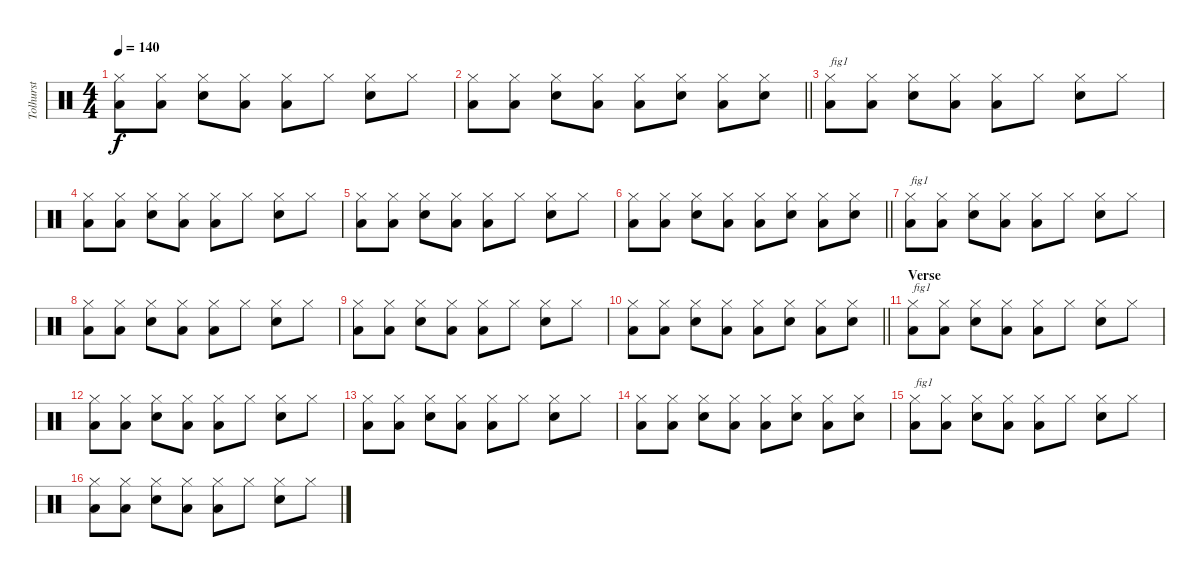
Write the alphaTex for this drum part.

\track ("Tolhurst" "Tolhurst") {instrument percussion}
\staff {score}
\articulation defaults
\ts (4 4)
\tempo 140
\clef neutral
\ks c
("Low Floor Tom (hit)" "Hi-Hat (closed)").8{dy f} ("Low Floor Tom (hit)" "Hi-Hat (closed)").8 ("Snare (hit) 2" "Hi-Hat (closed)").8 ("Low Floor Tom (hit)" "Hi-Hat (closed)").8 ("Low Floor Tom (hit)" "Hi-Hat (closed)").8 "Hi-Hat (closed)".8 ("Snare (hit) 2" "Hi-Hat (closed)").8 "Hi-Hat (closed)".8 |
\barLineRight lightlight
("Low Floor Tom (hit)" "Hi-Hat (closed)").8 ("Low Floor Tom (hit)" "Hi-Hat (closed)").8 ("Snare (hit) 2" "Hi-Hat (closed)").8 ("Low Floor Tom (hit)" "Hi-Hat (closed)").8 ("Low Floor Tom (hit)" "Hi-Hat (closed)").8 ("Snare (hit) 2" "Hi-Hat (closed)").8 ("Low Floor Tom (hit)" "Hi-Hat (closed)").8 ("Snare (hit) 2" "Hi-Hat (closed)").8 |
("Low Floor Tom (hit)" "Hi-Hat (closed)").8{txt "fig1"} ("Low Floor Tom (hit)" "Hi-Hat (closed)").8 ("Snare (hit) 2" "Hi-Hat (closed)").8 ("Low Floor Tom (hit)" "Hi-Hat (closed)").8 ("Low Floor Tom (hit)" "Hi-Hat (closed)").8 "Hi-Hat (closed)".8 ("Snare (hit) 2" "Hi-Hat (closed)").8 "Hi-Hat (closed)".8 |
("Low Floor Tom (hit)" "Hi-Hat (closed)").8 ("Low Floor Tom (hit)" "Hi-Hat (closed)").8 ("Snare (hit) 2" "Hi-Hat (closed)").8 ("Low Floor Tom (hit)" "Hi-Hat (closed)").8 ("Low Floor Tom (hit)" "Hi-Hat (closed)").8 "Hi-Hat (closed)".8 ("Snare (hit) 2" "Hi-Hat (closed)").8 "Hi-Hat (closed)".8 |
("Low Floor Tom (hit)" "Hi-Hat (closed)").8 ("Low Floor Tom (hit)" "Hi-Hat (closed)").8 ("Snare (hit) 2" "Hi-Hat (closed)").8 ("Low Floor Tom (hit)" "Hi-Hat (closed)").8 ("Low Floor Tom (hit)" "Hi-Hat (closed)").8 "Hi-Hat (closed)".8 ("Snare (hit) 2" "Hi-Hat (closed)").8 "Hi-Hat (closed)".8 |
\barLineRight lightlight
("Low Floor Tom (hit)" "Hi-Hat (closed)").8 ("Low Floor Tom (hit)" "Hi-Hat (closed)").8 ("Snare (hit) 2" "Hi-Hat (closed)").8 ("Low Floor Tom (hit)" "Hi-Hat (closed)").8 ("Low Floor Tom (hit)" "Hi-Hat (closed)").8 ("Snare (hit) 2" "Hi-Hat (closed)").8 ("Low Floor Tom (hit)" "Hi-Hat (closed)").8 ("Snare (hit) 2" "Hi-Hat (closed)").8 |
("Low Floor Tom (hit)" "Hi-Hat (closed)").8{txt "fig1"} ("Low Floor Tom (hit)" "Hi-Hat (closed)").8 ("Snare (hit) 2" "Hi-Hat (closed)").8 ("Low Floor Tom (hit)" "Hi-Hat (closed)").8 ("Low Floor Tom (hit)" "Hi-Hat (closed)").8 "Hi-Hat (closed)".8 ("Snare (hit) 2" "Hi-Hat (closed)").8 "Hi-Hat (closed)".8 |
("Low Floor Tom (hit)" "Hi-Hat (closed)").8 ("Low Floor Tom (hit)" "Hi-Hat (closed)").8 ("Snare (hit) 2" "Hi-Hat (closed)").8 ("Low Floor Tom (hit)" "Hi-Hat (closed)").8 ("Low Floor Tom (hit)" "Hi-Hat (closed)").8 "Hi-Hat (closed)".8 ("Snare (hit) 2" "Hi-Hat (closed)").8 "Hi-Hat (closed)".8 |
("Low Floor Tom (hit)" "Hi-Hat (closed)").8 ("Low Floor Tom (hit)" "Hi-Hat (closed)").8 ("Snare (hit) 2" "Hi-Hat (closed)").8 ("Low Floor Tom (hit)" "Hi-Hat (closed)").8 ("Low Floor Tom (hit)" "Hi-Hat (closed)").8 "Hi-Hat (closed)".8 ("Snare (hit) 2" "Hi-Hat (closed)").8 "Hi-Hat (closed)".8 |
\barLineRight lightlight
("Low Floor Tom (hit)" "Hi-Hat (closed)").8 ("Low Floor Tom (hit)" "Hi-Hat (closed)").8 ("Snare (hit) 2" "Hi-Hat (closed)").8 ("Low Floor Tom (hit)" "Hi-Hat (closed)").8 ("Low Floor Tom (hit)" "Hi-Hat (closed)").8 ("Snare (hit) 2" "Hi-Hat (closed)").8 ("Low Floor Tom (hit)" "Hi-Hat (closed)").8 ("Snare (hit) 2" "Hi-Hat (closed)").8 |
\section ("" "Verse")
("Low Floor Tom (hit)" "Hi-Hat (closed)").8{txt "fig1"} ("Low Floor Tom (hit)" "Hi-Hat (closed)").8 ("Snare (hit) 2" "Hi-Hat (closed)").8 ("Low Floor Tom (hit)" "Hi-Hat (closed)").8 ("Low Floor Tom (hit)" "Hi-Hat (closed)").8 "Hi-Hat (closed)".8 ("Snare (hit) 2" "Hi-Hat (closed)").8 "Hi-Hat (closed)".8 |
("Low Floor Tom (hit)" "Hi-Hat (closed)").8 ("Low Floor Tom (hit)" "Hi-Hat (closed)").8 ("Snare (hit) 2" "Hi-Hat (closed)").8 ("Low Floor Tom (hit)" "Hi-Hat (closed)").8 ("Low Floor Tom (hit)" "Hi-Hat (closed)").8 "Hi-Hat (closed)".8 ("Snare (hit) 2" "Hi-Hat (closed)").8 "Hi-Hat (closed)".8 |
("Low Floor Tom (hit)" "Hi-Hat (closed)").8 ("Low Floor Tom (hit)" "Hi-Hat (closed)").8 ("Snare (hit) 2" "Hi-Hat (closed)").8 ("Low Floor Tom (hit)" "Hi-Hat (closed)").8 ("Low Floor Tom (hit)" "Hi-Hat (closed)").8 "Hi-Hat (closed)".8 ("Snare (hit) 2" "Hi-Hat (closed)").8 "Hi-Hat (closed)".8 |
("Low Floor Tom (hit)" "Hi-Hat (closed)").8 ("Low Floor Tom (hit)" "Hi-Hat (closed)").8 ("Snare (hit) 2" "Hi-Hat (closed)").8 ("Low Floor Tom (hit)" "Hi-Hat (closed)").8 ("Low Floor Tom (hit)" "Hi-Hat (closed)").8 ("Snare (hit) 2" "Hi-Hat (closed)").8 ("Low Floor Tom (hit)" "Hi-Hat (closed)").8 ("Snare (hit) 2" "Hi-Hat (closed)").8 |
("Low Floor Tom (hit)" "Hi-Hat (closed)").8{txt "fig1"} ("Low Floor Tom (hit)" "Hi-Hat (closed)").8 ("Snare (hit) 2" "Hi-Hat (closed)").8 ("Low Floor Tom (hit)" "Hi-Hat (closed)").8 ("Low Floor Tom (hit)" "Hi-Hat (closed)").8 "Hi-Hat (closed)".8 ("Snare (hit) 2" "Hi-Hat (closed)").8 "Hi-Hat (closed)".8 |
("Low Floor Tom (hit)" "Hi-Hat (closed)").8 ("Low Floor Tom (hit)" "Hi-Hat (closed)").8 ("Snare (hit) 2" "Hi-Hat (closed)").8 ("Low Floor Tom (hit)" "Hi-Hat (closed)").8 ("Low Floor Tom (hit)" "Hi-Hat (closed)").8 "Hi-Hat (closed)".8 ("Snare (hit) 2" "Hi-Hat (closed)").8 "Hi-Hat (closed)".8
